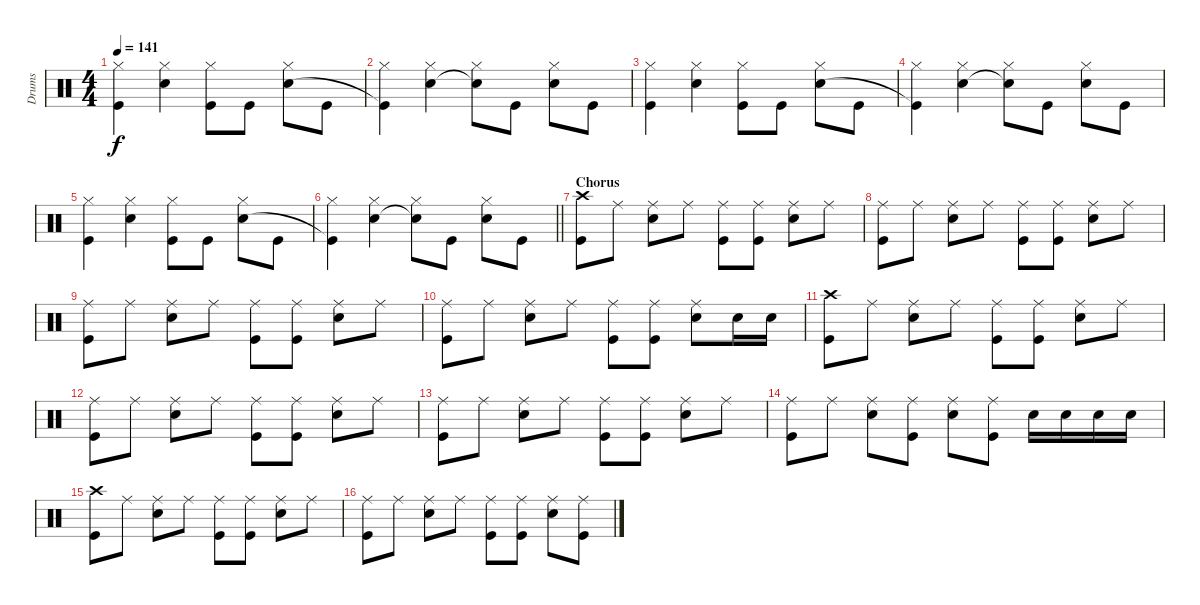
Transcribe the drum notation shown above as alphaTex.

\track ("Drums" "Drums") {instrument percussion}
\staff {score}
\articulation defaults
\ts (4 4)
\tempo 141
\clef neutral
\ks c
("Kick (hit)" "Hi-Hat (closed)").4{dy f} ("Snare (hit) 2" "Hi-Hat (closed)").4 ("Hi-Hat (closed)" "Kick (hit)").8 "Kick (hit)".8 ("Hi-Hat (closed)" "Snare (hit) 2").8 "Kick (hit)".8 |
("Hi-Hat (closed)" "Kick (hit)"{t}).4 ("Hi-Hat (closed)" "Snare (hit) 2").4 ("Hi-Hat (closed)" "Snare (hit) 2"{t}).8 "Kick (hit)".8 ("Hi-Hat (closed)" "Snare (hit) 2").8 "Kick (hit)".8 |
("Kick (hit)" "Hi-Hat (closed)").4 ("Snare (hit) 2" "Hi-Hat (closed)").4 ("Hi-Hat (closed)" "Kick (hit)").8 "Kick (hit)".8 ("Hi-Hat (closed)" "Snare (hit) 2").8 "Kick (hit)".8 |
("Hi-Hat (closed)" "Kick (hit)"{t}).4 ("Hi-Hat (closed)" "Snare (hit) 2").4 ("Hi-Hat (closed)" "Snare (hit) 2"{t}).8 "Kick (hit)".8 ("Hi-Hat (closed)" "Snare (hit) 2").8 "Kick (hit)".8 |
("Kick (hit)" "Hi-Hat (closed)").4 ("Snare (hit) 2" "Hi-Hat (closed)").4 ("Hi-Hat (closed)" "Kick (hit)").8 "Kick (hit)".8 ("Hi-Hat (closed)" "Snare (hit) 2").8 "Kick (hit)".8 |
\barLineRight lightlight
("Hi-Hat (closed)" "Kick (hit)"{t}).4 ("Hi-Hat (closed)" "Snare (hit) 2").4 ("Hi-Hat (closed)" "Snare (hit) 2"{t}).8 "Kick (hit)".8 ("Hi-Hat (closed)" "Snare (hit) 2").8 "Kick (hit)".8 |
\section ("" "Chorus")
("Crash high (hit)" "Kick (hit)").8 "Ride (middle)".8 ("Ride (middle)" "Snare (hit) 2").8 "Ride (middle)".8 ("Ride (middle)" "Kick (hit)").8 ("Ride (middle)" "Kick (hit)").8 ("Ride (middle)" "Snare (hit) 2").8 "Ride (middle)".8 |
("Ride (middle)" "Kick (hit)").8 "Ride (middle)".8 ("Ride (middle)" "Snare (hit) 2").8 "Ride (middle)".8 ("Ride (middle)" "Kick (hit)").8 ("Ride (middle)" "Kick (hit)").8 ("Ride (middle)" "Snare (hit) 2").8 "Ride (middle)".8 |
("Ride (middle)" "Kick (hit)").8 "Ride (middle)".8 ("Ride (middle)" "Snare (hit) 2").8 "Ride (middle)".8 ("Ride (middle)" "Kick (hit)").8 ("Ride (middle)" "Kick (hit)").8 ("Ride (middle)" "Snare (hit) 2").8 "Ride (middle)".8 |
("Ride (middle)" "Kick (hit)").8 "Ride (middle)".8 ("Ride (middle)" "Snare (hit) 2").8 "Ride (middle)".8 ("Ride (middle)" "Kick (hit)").8 ("Ride (middle)" "Kick (hit)").8 ("Ride (middle)" "Snare (hit) 2").8 "Snare (hit) 2".16 "Snare (hit) 2".16 |
("Crash high (hit)" "Kick (hit)").8 "Ride (middle)".8 ("Ride (middle)" "Snare (hit) 2").8 "Ride (middle)".8 ("Ride (middle)" "Kick (hit)").8 ("Ride (middle)" "Kick (hit)").8 ("Ride (middle)" "Snare (hit) 2").8 "Ride (middle)".8 |
("Ride (middle)" "Kick (hit)").8 "Ride (middle)".8 ("Ride (middle)" "Snare (hit) 2").8 "Ride (middle)".8 ("Ride (middle)" "Kick (hit)").8 ("Ride (middle)" "Kick (hit)").8 ("Ride (middle)" "Snare (hit) 2").8 "Ride (middle)".8 |
("Ride (middle)" "Kick (hit)").8 "Ride (middle)".8 ("Ride (middle)" "Snare (hit) 2").8 "Ride (middle)".8 ("Ride (middle)" "Kick (hit)").8 ("Ride (middle)" "Kick (hit)").8 ("Ride (middle)" "Snare (hit) 2").8 "Ride (middle)".8 |
("Ride (middle)" "Kick (hit)").8 "Ride (middle)".8 ("Ride (middle)" "Snare (hit) 2").8 ("Ride (middle)" "Kick (hit)").8 ("Ride (middle)" "Snare (hit) 2").8 ("Ride (middle)" "Kick (hit)").8 "Snare (hit) 2".16 "Snare (hit) 2".16 "Snare (hit) 2".16 "Snare (hit) 2".16 |
("Crash high (hit)" "Kick (hit)").8 "Ride (middle)".8 ("Ride (middle)" "Snare (hit) 2").8 "Ride (middle)".8 ("Ride (middle)" "Kick (hit)").8 ("Ride (middle)" "Kick (hit)").8 ("Ride (middle)" "Snare (hit) 2").8 "Ride (middle)".8 |
("Ride (middle)" "Kick (hit)").8 "Ride (middle)".8 ("Ride (middle)" "Snare (hit) 2").8 "Ride (middle)".8 ("Ride (middle)" "Kick (hit)").8 ("Ride (middle)" "Kick (hit)").8 ("Ride (middle)" "Snare (hit) 2").8 ("Ride (middle)" "Kick (hit)").8
